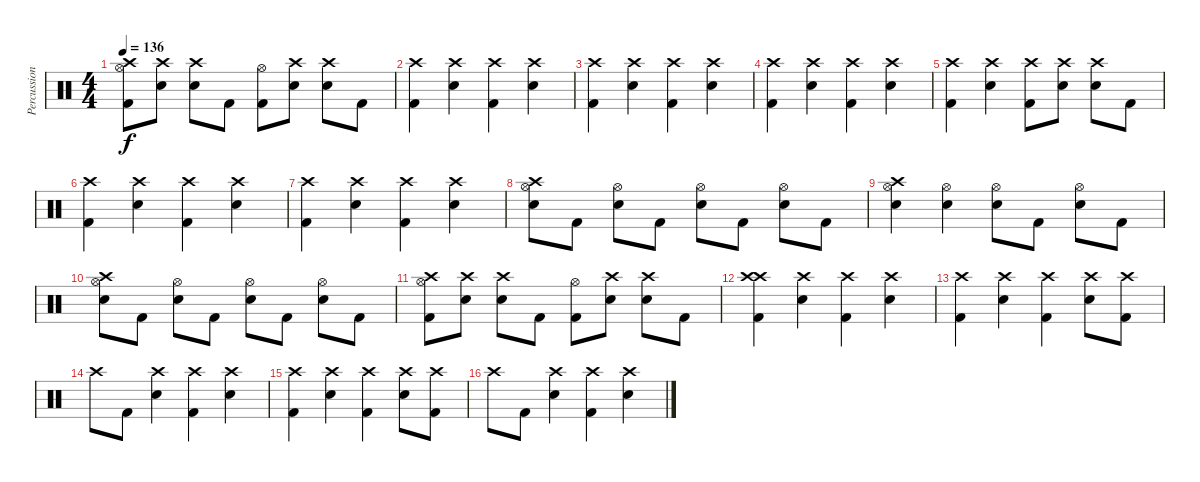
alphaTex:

\track ("Percussion" "Percussion") {instrument percussion}
\staff {score}
\articulation defaults
\ts (4 4)
\tempo 136
\clef neutral
\ks c
("Kick (hit) 2" "Hi-Hat (open)" "Crash high (hit)").8{dy f} ("Snare (hit) 2" "Crash high (hit)").8 ("Snare (hit) 2" "Crash high (hit)").8 "Kick (hit) 2".8 ("Kick (hit) 2" "Hi-Hat (open)").8 ("Snare (hit) 2" "Crash high (hit)").8 ("Snare (hit) 2" "Crash high (hit)").8 "Kick (hit) 2".8 |
("Kick (hit) 2" "Crash high (hit)").4 ("Snare (hit) 2" "Crash high (hit)").4 ("Kick (hit) 2" "Crash high (hit)").4 ("Snare (hit) 2" "Crash high (hit)").4 |
("Kick (hit) 2" "Crash high (hit)").4 ("Snare (hit) 2" "Crash high (hit)").4 ("Kick (hit) 2" "Crash high (hit)").4 ("Snare (hit) 2" "Crash high (hit)").4 |
("Kick (hit) 2" "Crash high (hit)").4 ("Snare (hit) 2" "Crash high (hit)").4 ("Kick (hit) 2" "Crash high (hit)").4 ("Snare (hit) 2" "Crash high (hit)").4 |
("Kick (hit) 2" "Crash high (hit)").4 ("Snare (hit) 2" "Crash high (hit)").4 ("Kick (hit) 2" "Crash high (hit)").8 ("Snare (hit) 2" "Crash high (hit)").8 ("Snare (hit) 2" "Crash high (hit)").8 "Kick (hit) 2".8 |
("Kick (hit) 2" "Crash high (hit)").4 ("Snare (hit) 2" "Crash high (hit)").4 ("Kick (hit) 2" "Crash high (hit)").4 ("Snare (hit) 2" "Crash high (hit)").4 |
("Kick (hit) 2" "Crash high (hit)").4 ("Snare (hit) 2" "Crash high (hit)").4 ("Kick (hit) 2" "Crash high (hit)").4 ("Snare (hit) 2" "Crash high (hit)").4 |
("Snare (hit) 2" "Hi-Hat (open)" "Crash high (hit)").8 "Kick (hit) 2".8 ("Snare (hit) 2" "Hi-Hat (open)").8 "Kick (hit) 2".8 ("Snare (hit) 2" "Hi-Hat (open)").8 "Kick (hit) 2".8 ("Snare (hit) 2" "Hi-Hat (open)").8 "Kick (hit) 2".8 |
("Snare (hit) 2" "Hi-Hat (open)" "Crash high (hit)").4 ("Snare (hit) 2" "Hi-Hat (open)").4 ("Snare (hit) 2" "Hi-Hat (open)").8 "Kick (hit) 2".8 ("Snare (hit) 2" "Hi-Hat (open)").8 "Kick (hit) 2".8 |
("Snare (hit) 2" "Hi-Hat (open)" "Crash high (hit)").8 "Kick (hit) 2".8 ("Snare (hit) 2" "Hi-Hat (open)").8 "Kick (hit) 2".8 ("Snare (hit) 2" "Hi-Hat (open)").8 "Kick (hit) 2".8 ("Snare (hit) 2" "Hi-Hat (open)").8 "Kick (hit) 2".8 |
("Kick (hit) 2" "Hi-Hat (open)" "Crash high (hit)").8 ("Snare (hit) 2" "Crash high (hit)").8 ("Snare (hit) 2" "Crash high (hit)").8 "Kick (hit) 2".8 ("Kick (hit) 2" "Hi-Hat (open)").8 ("Snare (hit) 2" "Crash high (hit)").8 ("Snare (hit) 2" "Crash high (hit)").8 "Kick (hit) 2".8 |
("Kick (hit) 2" "Crash high (hit)" "Crash high (hit)").4 ("Snare (hit) 2" "Crash high (hit)").4 ("Kick (hit) 2" "Crash high (hit)").4 ("Snare (hit) 2" "Crash high (hit)").4 |
("Kick (hit) 2" "Crash high (hit)").4 ("Snare (hit) 2" "Crash high (hit)").4 ("Kick (hit) 2" "Crash high (hit)").4 ("Snare (hit) 2" "Crash high (hit)").8 ("Kick (hit) 2" "Crash high (hit)").8 |
"Crash high (hit)".8 "Kick (hit) 2".8 ("Snare (hit) 2" "Crash high (hit)").4 ("Kick (hit) 2" "Crash high (hit)").4 ("Snare (hit) 2" "Crash high (hit)").4 |
("Kick (hit) 2" "Crash high (hit)").4 ("Snare (hit) 2" "Crash high (hit)").4 ("Kick (hit) 2" "Crash high (hit)").4 ("Snare (hit) 2" "Crash high (hit)").8 ("Kick (hit) 2" "Crash high (hit)").8 |
"Crash high (hit)".8 "Kick (hit) 2".8 ("Snare (hit) 2" "Crash high (hit)").4 ("Kick (hit) 2" "Crash high (hit)").4 ("Snare (hit) 2" "Crash high (hit)").4
